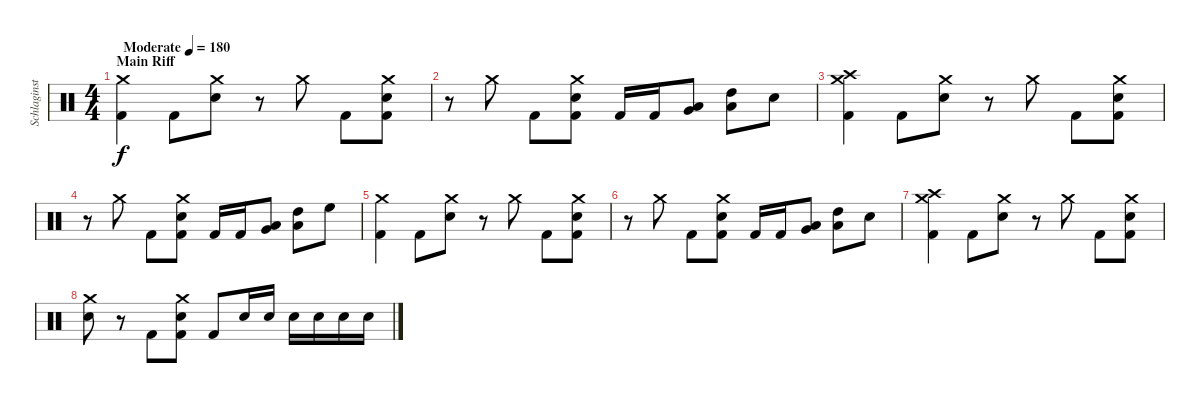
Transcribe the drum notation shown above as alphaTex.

\track ("Schlaginstrumente - Auswahl" "Schlaginst") {instrument percussion}
\staff {score}
\articulation defaults
\ts (4 4)
\section ("" "Main Riff")
\tempo (180 "Moderate")
\clef neutral
\ks c
("Crash medium (hit)" "Kick (hit) 2").4{dy f} "Kick (hit) 2".8 ("Crash medium (hit)" "Electric Snare (hit)").8 r.8 "Crash medium (hit)".8 "Kick (hit) 2".8 ("Crash medium (hit)" "Electric Snare (hit)" "Kick (hit) 2").8 |
r.8 "Crash medium (hit)".8 "Kick (hit) 2".8 ("Crash medium (hit)" "Electric Snare (hit)" "Kick (hit) 2").8 "Kick (hit) 2".16 "Kick (hit) 2".16 ("Very Low Tom (hit)" "Low Tom (hit)").8 ("High Tom (hit)" "Low Tom (hit)").8 "Electric Snare (hit)".8 |
("Crash medium (hit)" "Crash high (hit)" "Kick (hit) 2").4 "Kick (hit) 2".8 ("Crash medium (hit)" "Electric Snare (hit)").8 r.8 "Crash medium (hit)".8 "Kick (hit) 2".8 ("Crash medium (hit)" "Electric Snare (hit)" "Kick (hit) 2").8 |
r.8 "Crash medium (hit)".8 "Kick (hit) 2".8 ("Crash medium (hit)" "Electric Snare (hit)" "Kick (hit) 2").8 "Kick (hit) 2".16 "Kick (hit) 2".16 ("Very Low Tom (hit)" "Low Tom (hit)").8 ("High Tom (hit)" "Low Tom (hit)").8 "High Floor Tom (hit)".8 |
("Crash medium (hit)" "Kick (hit) 2").4 "Kick (hit) 2".8 ("Crash medium (hit)" "Electric Snare (hit)").8 r.8 "Crash medium (hit)".8 "Kick (hit) 2".8 ("Crash medium (hit)" "Electric Snare (hit)" "Kick (hit) 2").8 |
r.8 "Crash medium (hit)".8 "Kick (hit) 2".8 ("Crash medium (hit)" "Electric Snare (hit)" "Kick (hit) 2").8 "Kick (hit) 2".16 "Kick (hit) 2".16 ("Very Low Tom (hit)" "Low Tom (hit)").8 ("High Tom (hit)" "Low Tom (hit)").8 "Electric Snare (hit)".8 |
("Crash medium (hit)" "Crash high (hit)" "Kick (hit) 2").4 "Kick (hit) 2".8 ("Crash medium (hit)" "Electric Snare (hit)").8 r.8 "Crash medium (hit)".8 "Kick (hit) 2".8 ("Crash medium (hit)" "Electric Snare (hit)" "Kick (hit) 2").8 |
("Crash medium (hit)" "Electric Snare (hit)").8 r.8 "Kick (hit) 2".8 ("Crash medium (hit)" "Electric Snare (hit)" "Kick (hit) 2").8 "Kick (hit) 2".8 "Electric Snare (hit)".16 "Electric Snare (hit)".16 "Electric Snare (hit)".16 "Electric Snare (hit)".16 "Electric Snare (hit)".16 "Electric Snare (hit)".16
